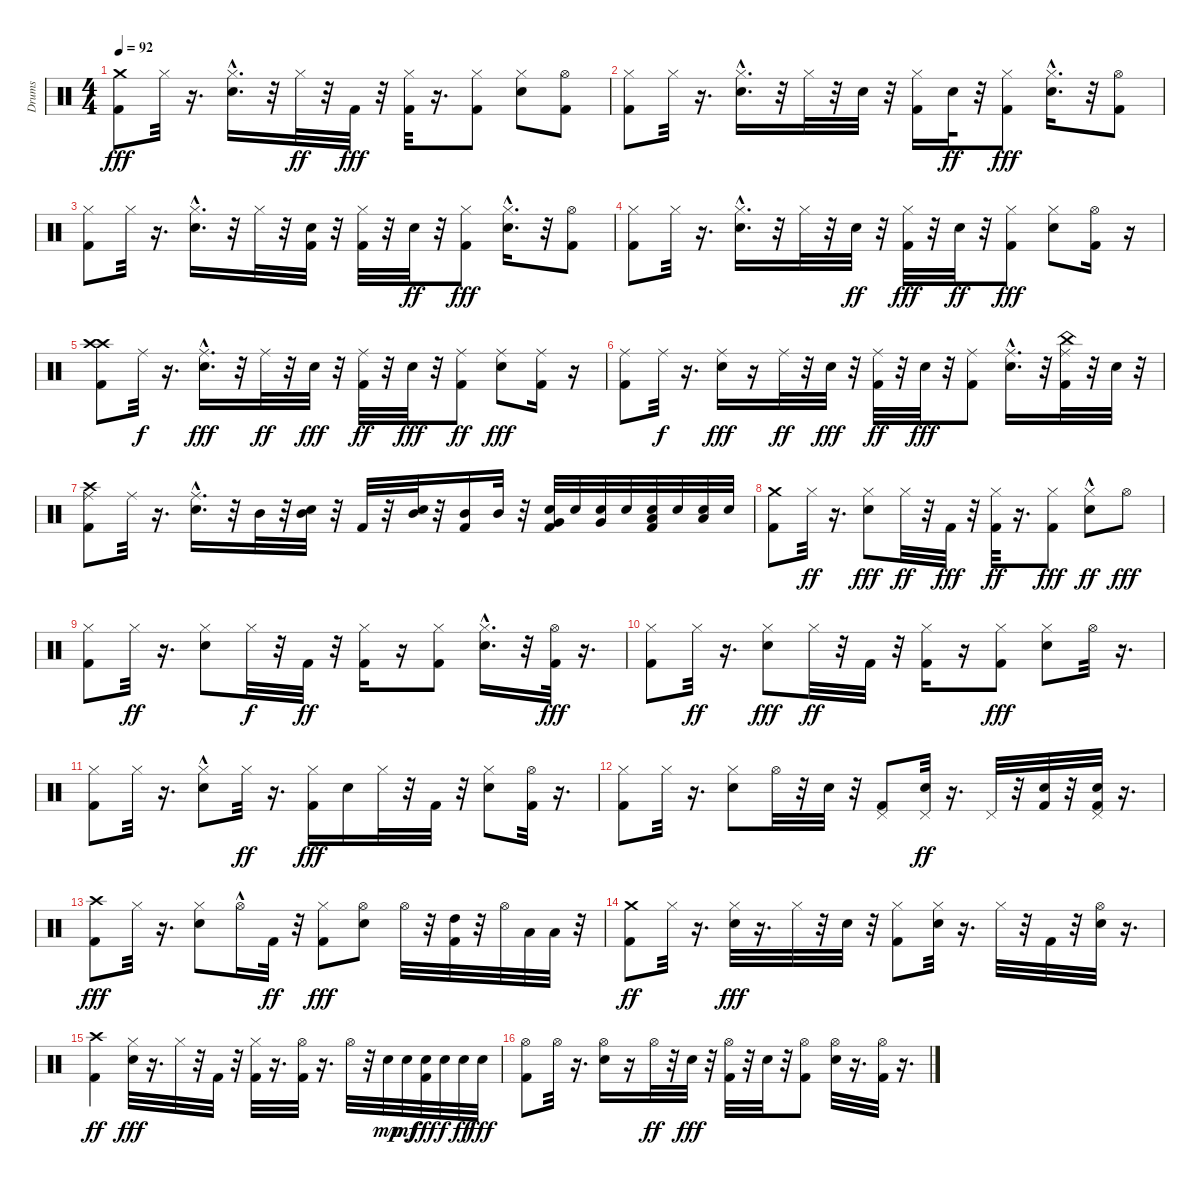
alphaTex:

\track ("Drums" "Drums") {instrument percussion}
\staff {score}
\articulation defaults
\ts (4 4)
\tempo 92
\clef neutral
\ks c
("Kick (hit) 2" "Crash medium (hit)").8{dy fff} "Hi-Hat (closed)".32 r.16{d} ("Snare (hit) 2"{hac} "Hi-Hat (closed)").16{d} r.32 "Hi-Hat (closed)".32{dy ff} r.32 "Kick (hit) 2".32{dy fff} r.32 ("Kick (hit) 2" "Hi-Hat (closed)").32 r.16{d} ("Kick (hit) 2" "Hi-Hat (closed)").8 ("Snare (hit) 2" "Hi-Hat (closed)").8 ("Kick (hit) 2" "Hi-Hat (open)").8 |
("Kick (hit) 2" "Hi-Hat (closed)").8 "Hi-Hat (closed)".32 r.16{d} ("Snare (hit) 2"{hac} "Hi-Hat (closed)").16{d} r.32 "Hi-Hat (closed)".32 r.32 "Snare (hit) 2".32 r.32 ("Kick (hit) 2" "Hi-Hat (closed)").16 "Snare (hit) 2".32{dy ff} r.32 ("Kick (hit) 2" "Hi-Hat (closed)").8{dy fff} ("Snare (hit) 2"{hac} "Hi-Hat (closed)").16{d} r.32 ("Hi-Hat (open)" "Kick (hit) 2").8 |
("Kick (hit) 2" "Hi-Hat (closed)").8 "Hi-Hat (closed)".32 r.16{d} ("Snare (hit) 2"{hac} "Hi-Hat (closed)").16{d} r.32 "Hi-Hat (closed)".32 r.32 ("Snare (hit) 2" "Kick (hit) 2").32 r.32 ("Kick (hit) 2" "Hi-Hat (closed)").32 r.32 "Snare (hit) 2".32{dy ff} r.32 ("Kick (hit) 2" "Hi-Hat (closed)").8{dy fff} ("Snare (hit) 2"{hac} "Hi-Hat (closed)").16{d} r.32 ("Kick (hit) 2" "Hi-Hat (open)").8 |
("Kick (hit) 2" "Hi-Hat (closed)").8 "Hi-Hat (closed)".32 r.16{d} ("Snare (hit) 2"{hac} "Hi-Hat (closed)").16{d} r.32 "Hi-Hat (closed)".32 r.32 "Snare (hit) 2".32{dy ff} r.32 ("Kick (hit) 2" "Hi-Hat (closed)").32{dy fff} r.32 "Snare (hit) 2".32{dy ff} r.32 ("Kick (hit) 2" "Hi-Hat (closed)").8{dy fff} ("Snare (hit) 2" "Hi-Hat (closed)").8 ("Kick (hit) 2" "Hi-Hat (open)").16 r.16 |
("Crash high (hit)" "Kick (hit) 2" "Crash high (hit)").8 "Ride (middle)".32{dy f} r.16{d} ("Snare (hit) 2"{hac} "Ride (middle)").16{d dy fff} r.32 "Ride (middle)".32{dy ff} r.32 "Snare (hit) 2".32{dy fff} r.32 ("Kick (hit) 2" "Ride (middle)").32{dy ff} r.32 "Snare (hit) 2".32{dy fff} r.32 ("Kick (hit) 2" "Ride (middle)").8{dy ff} ("Snare (hit) 2" "Ride (middle)").8{dy fff} ("Kick (hit) 2" "Ride (middle)").16 r.16 |
("Kick (hit) 2" "Ride (middle)").8 "Ride (middle)".32{dy f} r.16{d} ("Snare (hit) 2" "Ride (middle)").16{dy fff} r.16 "Ride (middle)".32{dy ff} r.32 "Snare (hit) 2".32{dy fff} r.32 ("Kick (hit) 2" "Ride (middle)").32{dy ff} r.32 "Snare (hit) 2".32{dy fff} r.32 ("Kick (hit) 2" "Ride (middle)").8 ("Snare (hit) 2"{hac} "Ride (middle)").16{d} r.32 ("Kick (hit) 2" "Ride (middle)" "China (hit)").32 r.32 "Snare (hit) 2".32 r.32 |
("Kick (hit) 2" "Crash high (hit)" "Ride (middle)").8 "Ride (middle)".32 r.16{d} ("Snare (hit) 2"{hac} "Ride (middle)").16{d} r.32 "Mid Tom (hit)".32 r.32 ("Snare (hit) 2" "Mid Tom (hit)").32 r.32 "Kick (hit) 2".32 r.32 ("Snare (hit) 2" "Mid Tom (hit)").32 r.32 ("Kick (hit) 2" "Mid Tom (hit)").16 "Mid Tom (hit)".32 r.32 ("Kick (hit) 2" "Snare (hit) 2" "Very Low Tom (hit)").32 "Snare (hit) 2".32 ("Snare (hit) 2" "Very Low Tom (hit)").32 "Snare (hit) 2".32 ("Kick (hit) 2" "Snare (hit) 2" "Low Floor Tom (hit)").32 "Snare (hit) 2".32 ("Snare (hit) 2" "Low Floor Tom (hit)").32 "Snare (hit) 2".32 |
("Kick (hit) 2" "Crash medium (hit)").8 "Hi-Hat (closed)".32{dy ff} r.16{d} ("Snare (hit) 2" "Hi-Hat (closed)").8{dy fff} "Hi-Hat (closed)".32{dy ff} r.32 "Kick (hit) 2".32{dy fff} r.32 ("Kick (hit) 2" "Hi-Hat (closed)").32{dy ff} r.16{d} ("Kick (hit) 2" "Hi-Hat (closed)").8{dy fff} ("Snare (hit) 2"{hac} "Hi-Hat (closed)").8{dy ff} "Hi-Hat (open)".8{dy fff} |
("Kick (hit) 2" "Hi-Hat (closed)").8 "Hi-Hat (closed)".32{dy ff} r.16{d} ("Snare (hit) 2" "Hi-Hat (closed)").8 "Hi-Hat (closed)".32{dy f} r.32 "Kick (hit) 2".32{dy ff} r.32 ("Kick (hit) 2" "Hi-Hat (closed)").16 r.16 ("Kick (hit) 2" "Hi-Hat (closed)").8 ("Snare (hit) 2"{hac} "Hi-Hat (closed)").16{d} r.32 ("Kick (hit) 2" "Hi-Hat (open)").32{dy fff} r.16{d} |
("Kick (hit) 2" "Hi-Hat (closed)").8 "Hi-Hat (closed)".32{dy ff} r.16{d} ("Snare (hit) 2" "Hi-Hat (closed)").8{dy fff} "Hi-Hat (closed)".32{dy ff} r.32 "Kick (hit) 2".32 r.32 ("Kick (hit) 2" "Hi-Hat (closed)").16 r.16 ("Kick (hit) 2" "Hi-Hat (closed)").8{dy fff} ("Snare (hit) 2" "Hi-Hat (closed)").8 "Hi-Hat (open)".32 r.16{d} |
("Kick (hit) 2" "Hi-Hat (closed)").8 "Hi-Hat (closed)".32 r.16{d} ("Snare (hit) 2"{hac} "Hi-Hat (closed)").8 "Hi-Hat (closed)".32{dy ff} r.16{d} ("Kick (hit) 2" "Hi-Hat (closed)").16{dy fff} "Snare (hit) 2".16 "Hi-Hat (closed)".32 r.32 "Kick (hit) 2".32 r.32 ("Snare (hit) 2" "Hi-Hat (closed)").8 ("Kick (hit) 2" "Hi-Hat (open)").32 r.16{d} |
("Kick (hit) 2" "Hi-Hat (closed)").8 "Hi-Hat (closed)".32 r.16{d} ("Snare (hit) 2" "Hi-Hat (closed)").8 "Hi-Hat (open)".32 r.32 "Snare (hit) 2".32 r.32 ("Kick (hit) 2" "Pedal Hi-Hat (hit)").8 ("Snare (hit) 2" "Pedal Hi-Hat (hit)").32{dy ff} r.16{d} "Pedal Hi-Hat (hit)".32 r.32 ("Kick (hit) 2" "Snare (hit) 2").32 r.32 ("Kick (hit) 2" "Snare (hit) 2" "Pedal Hi-Hat (hit)").32 r.16{d} |
("Kick (hit) 2" "Crash high (hit)").8{dy fff} "Hi-Hat (closed)".32 r.16{d} ("Snare (hit) 2" "Hi-Hat (closed)").8 "Hi-Hat (open)"{hac}.16 "Kick (hit) 2".32{dy ff} r.32 ("Kick (hit) 2" "Hi-Hat (closed)").8{dy fff} ("Snare (hit) 2" "Hi-Hat (open)").8 "Hi-Hat (open)".32 r.32 ("Kick (hit) 2" "High Tom (hit)").32 r.32 "Hi-Hat (open)".32 "Low Tom (hit)".32 "Low Floor Tom (hit)".32 r.32 |
("Kick (hit) 2" "Crash medium (hit)").8{dy ff} "Hi-Hat (closed)".32 r.16{d} ("Snare (hit) 2" "Hi-Hat (closed)").32{dy fff} r.16{d} "Hi-Hat (closed)".32 r.32 "Snare (hit) 2".32 r.32 ("Kick (hit) 2" "Hi-Hat (closed)").8 ("Snare (hit) 2" "Hi-Hat (closed)").32 r.16{d} "Hi-Hat (closed)".32 r.32 "Kick (hit) 2".32 r.32 ("Snare (hit) 2" "Hi-Hat (open)").32 r.16{d} |
("Kick (hit) 2" "Crash high (hit)").4{dy ff} ("Snare (hit) 2" "Hi-Hat (closed)").32{dy fff} r.16{d} "Hi-Hat (closed)".32 r.32 "Kick (hit) 2".32 r.32 ("Kick (hit) 2" "Hi-Hat (closed)").32 r.16{d} ("Kick (hit) 2" "Hi-Hat (open)").32 r.16{d} "Hi-Hat (open)".32 r.32 "Snare (hit) 2".32{dy mp} "Snare (hit) 2".32{dy mf} ("Kick (hit) 2" "Snare (hit) 2").32{dy fff} "Snare (hit) 2".32{dy f} "Snare (hit) 2".32{dy ff} "Snare (hit) 2".32{dy fff} |
("Kick (hit) 2" "Hi-Hat (open)").8 "Hi-Hat (open)".32 r.16{d} ("Snare (hit) 2" "Hi-Hat (open)").16 r.16 "Hi-Hat (open)".32{dy ff} r.32 "Snare (hit) 2".32{dy fff} r.32 ("Kick (hit) 2" "Hi-Hat (open)").32 r.32 "Snare (hit) 2".32 r.32 ("Kick (hit) 2" "Hi-Hat (open)").8 ("Snare (hit) 2" "Hi-Hat (open)").32 r.16{d} ("Kick (hit) 2" "Hi-Hat (open)").32 r.16{d}
